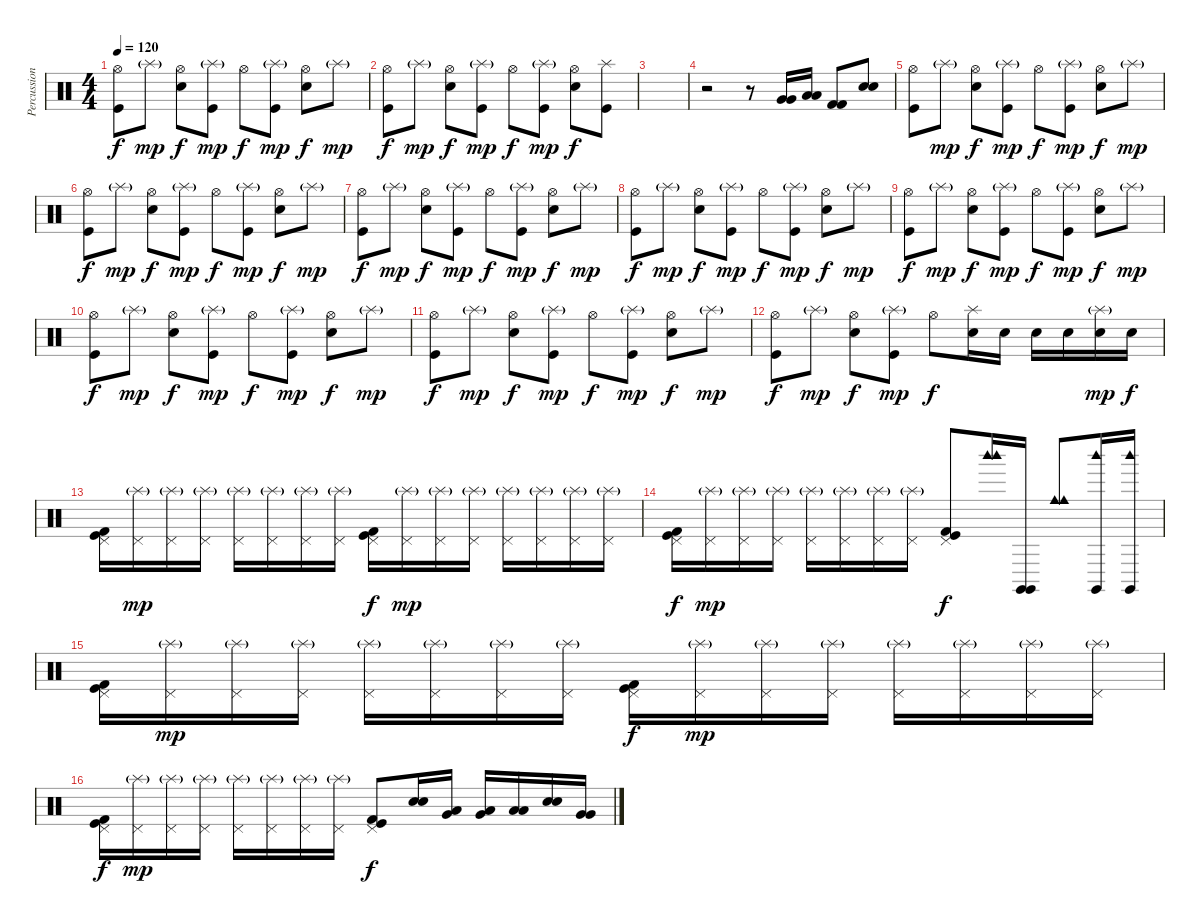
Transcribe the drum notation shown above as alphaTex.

\track ("Percussion" "Percussion") {instrument percussion}
\staff {score}
\articulation defaults
\ts (4 4)
\tempo 120
\clef neutral
\ks c
("Hi-Hat (open)" "Kick (hit)").8{dy f} "Splash (hit)"{g}.8{dy mp} ("Hi-Hat (open)" "Electric Snare (hit)").8{dy f} ("Splash (hit)"{g} "Kick (hit)").8{dy mp} "Hi-Hat (open)".8{dy f} ("Splash (hit)"{g} "Kick (hit)").8{dy mp} ("Hi-Hat (open)" "Electric Snare (hit)").8{dy f} "Splash (hit)"{g}.8{dy mp} |
("Hi-Hat (open)" "Kick (hit)").8{dy f} "Splash (hit)"{g}.8{dy mp} ("Hi-Hat (open)" "Electric Snare (hit)").8{dy f} ("Splash (hit)"{g} "Kick (hit)").8{dy mp} "Hi-Hat (open)".8{dy f} ("Splash (hit)"{g} "Kick (hit)").8{dy mp} ("Hi-Hat (open)" "Electric Snare (hit)").8{dy f} ("Kick (hit)" "Splash (hit)").8 |
|
r.2 r.8 ("Very Low Tom (hit)" "Very Low Tom (hit)").16 ("Low Floor Tom (hit)" "Low Floor Tom (hit)").16 ("Kick (hit) 2" "Kick (hit) 2").8 ("Electric Snare (hit)" "Electric Snare (hit)").8 |
("Hi-Hat (open)" "Kick (hit)").8 "Splash (hit)"{g}.8{dy mp} ("Hi-Hat (open)" "Electric Snare (hit)").8{dy f} ("Splash (hit)"{g} "Kick (hit)").8{dy mp} "Hi-Hat (open)".8{dy f} ("Splash (hit)"{g} "Kick (hit)").8{dy mp} ("Hi-Hat (open)" "Electric Snare (hit)").8{dy f} "Splash (hit)"{g}.8{dy mp} |
("Hi-Hat (open)" "Kick (hit)").8{dy f} "Splash (hit)"{g}.8{dy mp} ("Hi-Hat (open)" "Electric Snare (hit)").8{dy f} ("Splash (hit)"{g} "Kick (hit)").8{dy mp} "Hi-Hat (open)".8{dy f} ("Splash (hit)"{g} "Kick (hit)").8{dy mp} ("Hi-Hat (open)" "Electric Snare (hit)").8{dy f} "Splash (hit)"{g}.8{dy mp} |
("Hi-Hat (open)" "Kick (hit)").8{dy f} "Splash (hit)"{g}.8{dy mp} ("Hi-Hat (open)" "Electric Snare (hit)").8{dy f} ("Splash (hit)"{g} "Kick (hit)").8{dy mp} "Hi-Hat (open)".8{dy f} ("Splash (hit)"{g} "Kick (hit)").8{dy mp} ("Hi-Hat (open)" "Electric Snare (hit)").8{dy f} "Splash (hit)"{g}.8{dy mp} |
("Hi-Hat (open)" "Kick (hit)").8{dy f} "Splash (hit)"{g}.8{dy mp} ("Hi-Hat (open)" "Electric Snare (hit)").8{dy f} ("Splash (hit)"{g} "Kick (hit)").8{dy mp} "Hi-Hat (open)".8{dy f} ("Splash (hit)"{g} "Kick (hit)").8{dy mp} ("Hi-Hat (open)" "Electric Snare (hit)").8{dy f} "Splash (hit)"{g}.8{dy mp} |
("Hi-Hat (open)" "Kick (hit)").8{dy f} "Splash (hit)"{g}.8{dy mp} ("Hi-Hat (open)" "Electric Snare (hit)").8{dy f} ("Splash (hit)"{g} "Kick (hit)").8{dy mp} "Hi-Hat (open)".8{dy f} ("Splash (hit)"{g} "Kick (hit)").8{dy mp} ("Hi-Hat (open)" "Electric Snare (hit)").8{dy f} "Splash (hit)"{g}.8{dy mp} |
("Hi-Hat (open)" "Kick (hit)").8{dy f} "Splash (hit)"{g}.8{dy mp} ("Hi-Hat (open)" "Electric Snare (hit)").8{dy f} ("Splash (hit)"{g} "Kick (hit)").8{dy mp} "Hi-Hat (open)".8{dy f} ("Splash (hit)"{g} "Kick (hit)").8{dy mp} ("Hi-Hat (open)" "Electric Snare (hit)").8{dy f} "Splash (hit)"{g}.8{dy mp} |
("Hi-Hat (open)" "Kick (hit)").8{dy f} "Splash (hit)"{g}.8{dy mp} ("Hi-Hat (open)" "Electric Snare (hit)").8{dy f} ("Splash (hit)"{g} "Kick (hit)").8{dy mp} "Hi-Hat (open)".8{dy f} ("Splash (hit)"{g} "Kick (hit)").8{dy mp} ("Hi-Hat (open)" "Electric Snare (hit)").8{dy f} "Splash (hit)"{g}.8{dy mp} |
("Hi-Hat (open)" "Kick (hit)").8{dy f} "Splash (hit)"{g}.8{dy mp} ("Hi-Hat (open)" "Electric Snare (hit)").8{dy f} ("Splash (hit)"{g} "Kick (hit)").8{dy mp} "Hi-Hat (open)".8{dy f} ("Electric Snare (hit)" "Splash (hit)").16 "Electric Snare (hit)".16 "Electric Snare (hit)".16 "Electric Snare (hit)".16 ("Splash (hit)"{g} "Electric Snare (hit)").16{dy mp} "Electric Snare (hit)".16{dy f} |
("Kick (hit) 2" "Pedal Hi-Hat (hit)" "Kick (hit)").16 ("Pedal Hi-Hat (hit)" "Splash (hit)"{g}).16{dy mp} ("Pedal Hi-Hat (hit)" "Splash (hit)"{g}).16 ("Pedal Hi-Hat (hit)" "Splash (hit)"{g}).16 ("Pedal Hi-Hat (hit)" "Splash (hit)"{g}).16 ("Pedal Hi-Hat (hit)" "Splash (hit)"{g}).16 ("Pedal Hi-Hat (hit)" "Splash (hit)"{g}).16 ("Pedal Hi-Hat (hit)" "Splash (hit)"{g}).16 ("Kick (hit) 2" "Pedal Hi-Hat (hit)" "Kick (hit)").16{dy f} ("Pedal Hi-Hat (hit)" "Splash (hit)"{g}).16{dy mp} ("Pedal Hi-Hat (hit)" "Splash (hit)"{g}).16 ("Pedal Hi-Hat (hit)" "Splash (hit)"{g}).16 ("Pedal Hi-Hat (hit)" "Splash (hit)"{g}).16 ("Pedal Hi-Hat (hit)" "Splash (hit)"{g}).16 ("Pedal Hi-Hat (hit)" "Splash (hit)"{g}).16 ("Pedal Hi-Hat (hit)" "Splash (hit)"{g}).16 |
("Kick (hit) 2" "Pedal Hi-Hat (hit)" "Kick (hit)").16{dy f} ("Pedal Hi-Hat (hit)" "Splash (hit)"{g}).16{dy mp} ("Pedal Hi-Hat (hit)" "Splash (hit)"{g}).16 ("Pedal Hi-Hat (hit)" "Splash (hit)"{g}).16 ("Pedal Hi-Hat (hit)" "Splash (hit)"{g}).16 ("Pedal Hi-Hat (hit)" "Splash (hit)"{g}).16 ("Pedal Hi-Hat (hit)" "Splash (hit)"{g}).16 ("Pedal Hi-Hat (hit)" "Splash (hit)"{g}).16 ("Kick (hit) 2" "Pedal Hi-Hat (hit)" "Kick (hit)").8{dy f} ("Woodblock high (hit)" "Woodblock high (hit)").16 ("Claves (hit)" "Claves (hit)").16 ("Cowbell medium (hit)" "Cowbell medium (hit)").8 ("Claves (hit)" "Woodblock high (hit)").16 ("Claves (hit)" "Woodblock high (hit)").16 |
("Kick (hit) 2" "Pedal Hi-Hat (hit)" "Kick (hit)").16 ("Pedal Hi-Hat (hit)" "Splash (hit)"{g}).16{dy mp} ("Pedal Hi-Hat (hit)" "Splash (hit)"{g}).16 ("Pedal Hi-Hat (hit)" "Splash (hit)"{g}).16 ("Pedal Hi-Hat (hit)" "Splash (hit)"{g}).16 ("Pedal Hi-Hat (hit)" "Splash (hit)"{g}).16 ("Pedal Hi-Hat (hit)" "Splash (hit)"{g}).16 ("Pedal Hi-Hat (hit)" "Splash (hit)"{g}).16 ("Kick (hit) 2" "Pedal Hi-Hat (hit)" "Kick (hit)").16{dy f} ("Pedal Hi-Hat (hit)" "Splash (hit)"{g}).16{dy mp} ("Pedal Hi-Hat (hit)" "Splash (hit)"{g}).16 ("Pedal Hi-Hat (hit)" "Splash (hit)"{g}).16 ("Pedal Hi-Hat (hit)" "Splash (hit)"{g}).16 ("Pedal Hi-Hat (hit)" "Splash (hit)"{g}).16 ("Pedal Hi-Hat (hit)" "Splash (hit)"{g}).16 ("Pedal Hi-Hat (hit)" "Splash (hit)"{g}).16 |
("Kick (hit) 2" "Pedal Hi-Hat (hit)" "Kick (hit)").16{dy f} ("Pedal Hi-Hat (hit)" "Splash (hit)"{g}).16{dy mp} ("Pedal Hi-Hat (hit)" "Splash (hit)"{g}).16 ("Pedal Hi-Hat (hit)" "Splash (hit)"{g}).16 ("Pedal Hi-Hat (hit)" "Splash (hit)"{g}).16 ("Pedal Hi-Hat (hit)" "Splash (hit)"{g}).16 ("Pedal Hi-Hat (hit)" "Splash (hit)"{g}).16 ("Pedal Hi-Hat (hit)" "Splash (hit)"{g}).16 ("Kick (hit) 2" "Pedal Hi-Hat (hit)" "Kick (hit)").8{dy f} ("Electric Snare (hit)" "Electric Snare (hit)").16 ("Low Floor Tom (hit)" "Very Low Tom (hit)").16 ("Low Floor Tom (hit)" "Very Low Tom (hit)").16 ("Low Floor Tom (hit)" "Low Floor Tom (hit)").16 ("Electric Snare (hit)" "Electric Snare (hit)").16 ("Very Low Tom (hit)" "Very Low Tom (hit)").16
